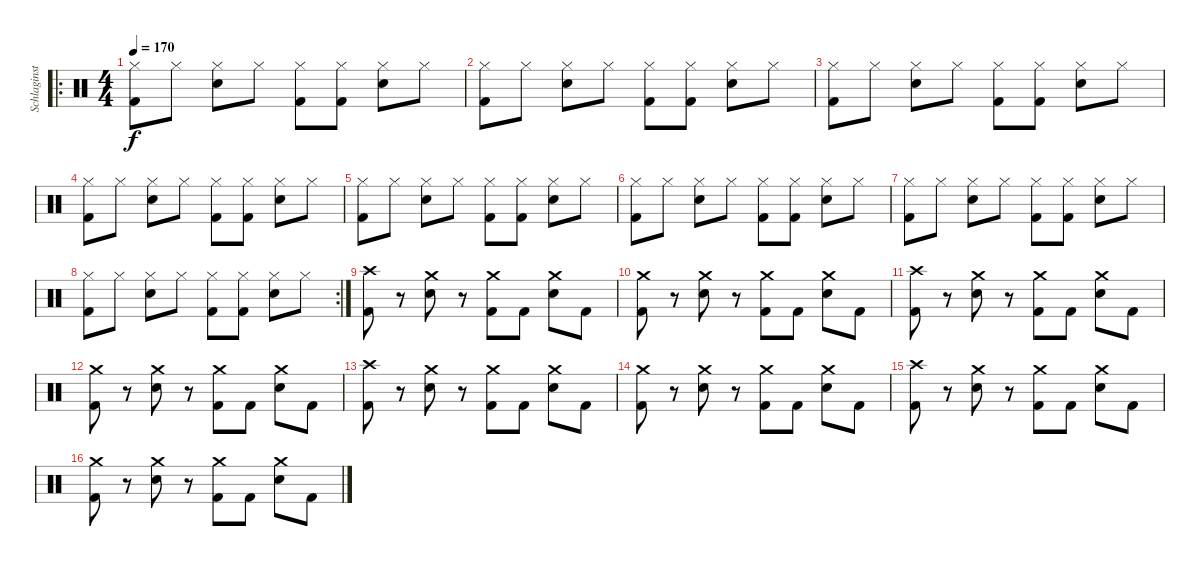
\track ("Schlaginstrumente - Auswahl" "Schlaginst") {instrument percussion}
\staff {score}
\articulation defaults
\ro
\ts (4 4)
\tempo 170
\clef neutral
\ks c
("Hi-Hat (closed)" "Kick (hit) 2").8{dy f} "Hi-Hat (closed)".8 ("Hi-Hat (closed)" "Snare (hit) 2").8 "Hi-Hat (closed)".8 ("Hi-Hat (closed)" "Kick (hit) 2").8 ("Hi-Hat (closed)" "Kick (hit) 2").8 ("Hi-Hat (closed)" "Snare (hit) 2").8 "Hi-Hat (closed)".8 |
("Hi-Hat (closed)" "Kick (hit) 2").8 "Hi-Hat (closed)".8 ("Hi-Hat (closed)" "Snare (hit) 2").8 "Hi-Hat (closed)".8 ("Hi-Hat (closed)" "Kick (hit) 2").8 ("Hi-Hat (closed)" "Kick (hit) 2").8 ("Hi-Hat (closed)" "Snare (hit) 2").8 "Hi-Hat (closed)".8 |
("Hi-Hat (closed)" "Kick (hit) 2").8 "Hi-Hat (closed)".8 ("Hi-Hat (closed)" "Snare (hit) 2").8 "Hi-Hat (closed)".8 ("Hi-Hat (closed)" "Kick (hit) 2").8 ("Hi-Hat (closed)" "Kick (hit) 2").8 ("Hi-Hat (closed)" "Snare (hit) 2").8 "Hi-Hat (closed)".8 |
("Hi-Hat (closed)" "Kick (hit) 2").8 "Hi-Hat (closed)".8 ("Hi-Hat (closed)" "Snare (hit) 2").8 "Hi-Hat (closed)".8 ("Hi-Hat (closed)" "Kick (hit) 2").8 ("Hi-Hat (closed)" "Kick (hit) 2").8 ("Hi-Hat (closed)" "Snare (hit) 2").8 "Hi-Hat (closed)".8 |
("Hi-Hat (closed)" "Kick (hit) 2").8 "Hi-Hat (closed)".8 ("Hi-Hat (closed)" "Snare (hit) 2").8 "Hi-Hat (closed)".8 ("Hi-Hat (closed)" "Kick (hit) 2").8 ("Hi-Hat (closed)" "Kick (hit) 2").8 ("Hi-Hat (closed)" "Snare (hit) 2").8 "Hi-Hat (closed)".8 |
("Hi-Hat (closed)" "Kick (hit) 2").8 "Hi-Hat (closed)".8 ("Hi-Hat (closed)" "Snare (hit) 2").8 "Hi-Hat (closed)".8 ("Hi-Hat (closed)" "Kick (hit) 2").8 ("Hi-Hat (closed)" "Kick (hit) 2").8 ("Hi-Hat (closed)" "Snare (hit) 2").8 "Hi-Hat (closed)".8 |
("Hi-Hat (closed)" "Kick (hit) 2").8 "Hi-Hat (closed)".8 ("Hi-Hat (closed)" "Snare (hit) 2").8 "Hi-Hat (closed)".8 ("Hi-Hat (closed)" "Kick (hit) 2").8 ("Hi-Hat (closed)" "Kick (hit) 2").8 ("Hi-Hat (closed)" "Snare (hit) 2").8 "Hi-Hat (closed)".8 |
\rc 2
("Hi-Hat (closed)" "Kick (hit) 2").8 "Hi-Hat (closed)".8 ("Hi-Hat (closed)" "Snare (hit) 2").8 "Hi-Hat (closed)".8 ("Hi-Hat (closed)" "Kick (hit) 2").8 ("Hi-Hat (closed)" "Kick (hit) 2").8 ("Hi-Hat (closed)" "Snare (hit) 2").8 "Hi-Hat (closed)".8 |
("Crash high (hit)" "Kick (hit) 2").8 r.8 ("Crash medium (hit)" "Snare (hit) 2").8 r.8 ("Crash medium (hit)" "Kick (hit) 2").8 "Kick (hit) 2".8 ("Crash medium (hit)" "Snare (hit) 2").8 "Kick (hit) 2".8 |
("Crash medium (hit)" "Kick (hit) 2").8 r.8 ("Crash medium (hit)" "Snare (hit) 2").8 r.8 ("Crash medium (hit)" "Kick (hit) 2").8 "Kick (hit) 2".8 ("Crash medium (hit)" "Snare (hit) 2").8 "Kick (hit) 2".8 |
("Crash high (hit)" "Kick (hit) 2").8 r.8 ("Crash medium (hit)" "Snare (hit) 2").8 r.8 ("Crash medium (hit)" "Kick (hit) 2").8 "Kick (hit) 2".8 ("Crash medium (hit)" "Snare (hit) 2").8 "Kick (hit) 2".8 |
("Crash medium (hit)" "Kick (hit) 2").8 r.8 ("Crash medium (hit)" "Snare (hit) 2").8 r.8 ("Crash medium (hit)" "Kick (hit) 2").8 "Kick (hit) 2".8 ("Crash medium (hit)" "Snare (hit) 2").8 "Kick (hit) 2".8 |
("Crash high (hit)" "Kick (hit) 2").8 r.8 ("Crash medium (hit)" "Snare (hit) 2").8 r.8 ("Crash medium (hit)" "Kick (hit) 2").8 "Kick (hit) 2".8 ("Crash medium (hit)" "Snare (hit) 2").8 "Kick (hit) 2".8 |
("Crash medium (hit)" "Kick (hit) 2").8 r.8 ("Crash medium (hit)" "Snare (hit) 2").8 r.8 ("Crash medium (hit)" "Kick (hit) 2").8 "Kick (hit) 2".8 ("Crash medium (hit)" "Snare (hit) 2").8 "Kick (hit) 2".8 |
("Crash high (hit)" "Kick (hit) 2").8 r.8 ("Crash medium (hit)" "Snare (hit) 2").8 r.8 ("Crash medium (hit)" "Kick (hit) 2").8 "Kick (hit) 2".8 ("Crash medium (hit)" "Snare (hit) 2").8 "Kick (hit) 2".8 |
("Crash medium (hit)" "Kick (hit) 2").8 r.8 ("Crash medium (hit)" "Snare (hit) 2").8 r.8 ("Crash medium (hit)" "Kick (hit) 2").8 "Kick (hit) 2".8 ("Crash medium (hit)" "Snare (hit) 2").8 "Kick (hit) 2".8
